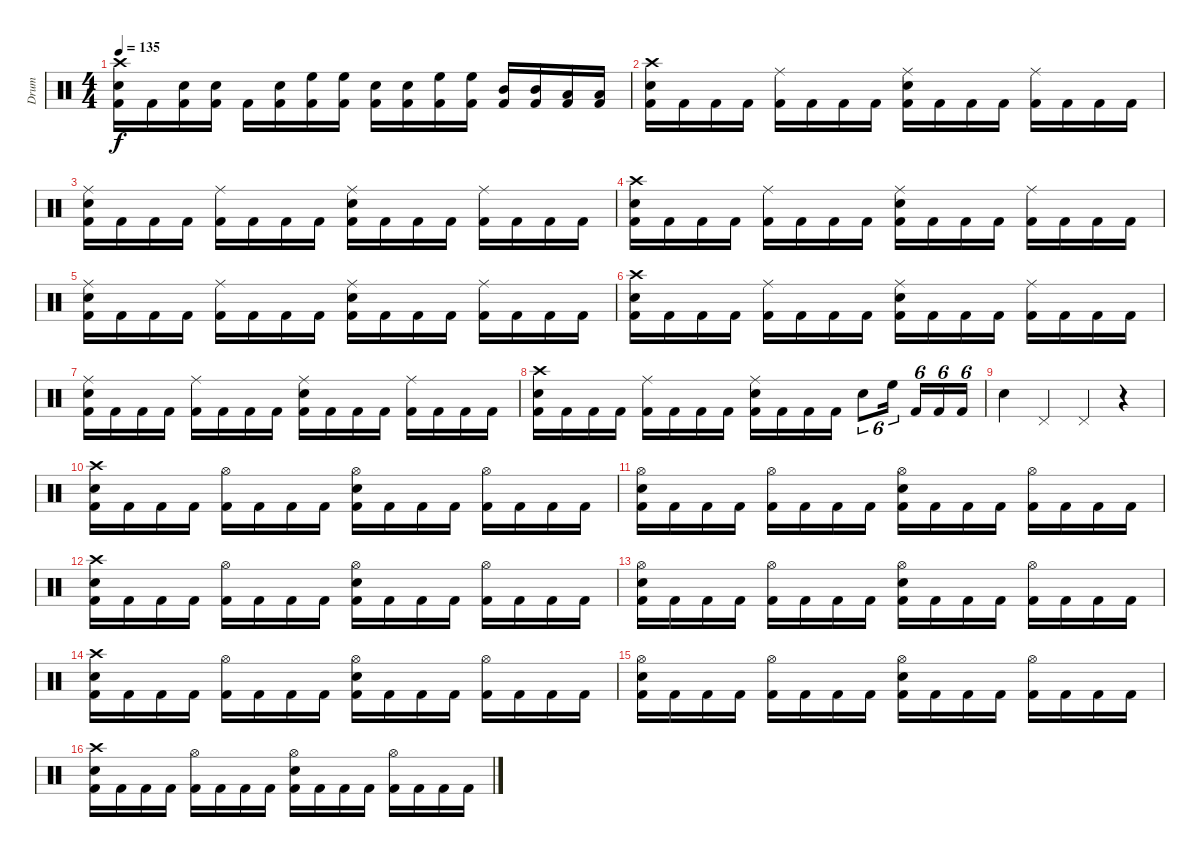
\track ("Drum" "Drum") {instrument percussion}
\staff {score}
\articulation defaults
\ts (4 4)
\tempo 135
\clef neutral
\ks c
("Crash high (hit)" "Snare (hit) 2" "Kick (hit) 2").16{dy f} "Kick (hit) 2".16 ("Snare (hit) 2" "Kick (hit) 2").16 ("Snare (hit) 2" "Kick (hit) 2").16 "Kick (hit) 2".16 ("Snare (hit) 2" "Kick (hit) 2").16 ("High Floor Tom (hit)" "Kick (hit) 2").16 ("High Floor Tom (hit)" "Kick (hit) 2").16 ("Snare (hit) 2" "Kick (hit) 2").16 ("Snare (hit) 2" "Kick (hit) 2").16 ("High Floor Tom (hit)" "Kick (hit) 2").16 ("High Floor Tom (hit)" "Kick (hit) 2").16 ("Mid Tom (hit)" "Kick (hit) 2").16 ("Mid Tom (hit)" "Kick (hit) 2").16 ("Low Tom (hit)" "Kick (hit) 2").16 ("Low Tom (hit)" "Kick (hit) 2").16 |
("Crash high (hit)" "Snare (hit) 2" "Kick (hit) 2").16 "Kick (hit) 2".16 "Kick (hit) 2".16 "Kick (hit) 2".16 ("Ride (middle)" "Kick (hit) 2").16 "Kick (hit) 2".16 "Kick (hit) 2".16 "Kick (hit) 2".16 ("Ride (middle)" "Snare (hit) 2" "Kick (hit) 2").16 "Kick (hit) 2".16 "Kick (hit) 2".16 "Kick (hit) 2".16 ("Ride (middle)" "Kick (hit) 2").16 "Kick (hit) 2".16 "Kick (hit) 2".16 "Kick (hit) 2".16 |
("Ride (middle)" "Snare (hit) 2" "Kick (hit) 2").16 "Kick (hit) 2".16 "Kick (hit) 2".16 "Kick (hit) 2".16 ("Ride (middle)" "Kick (hit) 2").16 "Kick (hit) 2".16 "Kick (hit) 2".16 "Kick (hit) 2".16 ("Ride (middle)" "Snare (hit) 2" "Kick (hit) 2").16 "Kick (hit) 2".16 "Kick (hit) 2".16 "Kick (hit) 2".16 ("Ride (middle)" "Kick (hit) 2").16 "Kick (hit) 2".16 "Kick (hit) 2".16 "Kick (hit) 2".16 |
("Crash high (hit)" "Snare (hit) 2" "Kick (hit) 2").16 "Kick (hit) 2".16 "Kick (hit) 2".16 "Kick (hit) 2".16 ("Ride (middle)" "Kick (hit) 2").16 "Kick (hit) 2".16 "Kick (hit) 2".16 "Kick (hit) 2".16 ("Ride (middle)" "Snare (hit) 2" "Kick (hit) 2").16 "Kick (hit) 2".16 "Kick (hit) 2".16 "Kick (hit) 2".16 ("Ride (middle)" "Kick (hit) 2").16 "Kick (hit) 2".16 "Kick (hit) 2".16 "Kick (hit) 2".16 |
("Ride (middle)" "Snare (hit) 2" "Kick (hit) 2").16 "Kick (hit) 2".16 "Kick (hit) 2".16 "Kick (hit) 2".16 ("Ride (middle)" "Kick (hit) 2").16 "Kick (hit) 2".16 "Kick (hit) 2".16 "Kick (hit) 2".16 ("Ride (middle)" "Snare (hit) 2" "Kick (hit) 2").16 "Kick (hit) 2".16 "Kick (hit) 2".16 "Kick (hit) 2".16 ("Ride (middle)" "Kick (hit) 2").16 "Kick (hit) 2".16 "Kick (hit) 2".16 "Kick (hit) 2".16 |
("Crash high (hit)" "Snare (hit) 2" "Kick (hit) 2").16 "Kick (hit) 2".16 "Kick (hit) 2".16 "Kick (hit) 2".16 ("Ride (middle)" "Kick (hit) 2").16 "Kick (hit) 2".16 "Kick (hit) 2".16 "Kick (hit) 2".16 ("Ride (middle)" "Snare (hit) 2" "Kick (hit) 2").16 "Kick (hit) 2".16 "Kick (hit) 2".16 "Kick (hit) 2".16 ("Ride (middle)" "Kick (hit) 2").16 "Kick (hit) 2".16 "Kick (hit) 2".16 "Kick (hit) 2".16 |
("Ride (middle)" "Snare (hit) 2" "Kick (hit) 2").16 "Kick (hit) 2".16 "Kick (hit) 2".16 "Kick (hit) 2".16 ("Ride (middle)" "Kick (hit) 2").16 "Kick (hit) 2".16 "Kick (hit) 2".16 "Kick (hit) 2".16 ("Ride (middle)" "Snare (hit) 2" "Kick (hit) 2").16 "Kick (hit) 2".16 "Kick (hit) 2".16 "Kick (hit) 2".16 ("Ride (middle)" "Kick (hit) 2").16 "Kick (hit) 2".16 "Kick (hit) 2".16 "Kick (hit) 2".16 |
("Crash high (hit)" "Snare (hit) 2" "Kick (hit) 2").16 "Kick (hit) 2".16 "Kick (hit) 2".16 "Kick (hit) 2".16 ("Ride (middle)" "Kick (hit) 2").16 "Kick (hit) 2".16 "Kick (hit) 2".16 "Kick (hit) 2".16 ("Ride (middle)" "Snare (hit) 2" "Kick (hit) 2").16 "Kick (hit) 2".16 "Kick (hit) 2".16 "Kick (hit) 2".16 "Snare (hit) 2".8{tu (6 4)} "High Floor Tom (hit)".16{tu (6 4)} "Kick (hit) 2".16{tu (6 4)} "Kick (hit) 2".16{tu (6 4)} "Kick (hit) 2".16{tu (6 4)} |
"Snare (hit) 2".4 "Pedal Hi-Hat (hit)".4 "Pedal Hi-Hat (hit)".4 r.4 |
("Crash high (hit)" "Snare (hit) 2" "Kick (hit) 2").16 "Kick (hit) 2".16 "Kick (hit) 2".16 "Kick (hit) 2".16 ("Hi-Hat (open)" "Kick (hit) 2").16 "Kick (hit) 2".16 "Kick (hit) 2".16 "Kick (hit) 2".16 ("Hi-Hat (open)" "Snare (hit) 2" "Kick (hit) 2").16 "Kick (hit) 2".16 "Kick (hit) 2".16 "Kick (hit) 2".16 ("Hi-Hat (open)" "Kick (hit) 2").16 "Kick (hit) 2".16 "Kick (hit) 2".16 "Kick (hit) 2".16 |
("Hi-Hat (open)" "Snare (hit) 2" "Kick (hit) 2").16 "Kick (hit) 2".16 "Kick (hit) 2".16 "Kick (hit) 2".16 ("Hi-Hat (open)" "Kick (hit) 2").16 "Kick (hit) 2".16 "Kick (hit) 2".16 "Kick (hit) 2".16 ("Hi-Hat (open)" "Snare (hit) 2" "Kick (hit) 2").16 "Kick (hit) 2".16 "Kick (hit) 2".16 "Kick (hit) 2".16 ("Hi-Hat (open)" "Kick (hit) 2").16 "Kick (hit) 2".16 "Kick (hit) 2".16 "Kick (hit) 2".16 |
("Crash high (hit)" "Snare (hit) 2" "Kick (hit) 2").16 "Kick (hit) 2".16 "Kick (hit) 2".16 "Kick (hit) 2".16 ("Hi-Hat (open)" "Kick (hit) 2").16 "Kick (hit) 2".16 "Kick (hit) 2".16 "Kick (hit) 2".16 ("Hi-Hat (open)" "Snare (hit) 2" "Kick (hit) 2").16 "Kick (hit) 2".16 "Kick (hit) 2".16 "Kick (hit) 2".16 ("Hi-Hat (open)" "Kick (hit) 2").16 "Kick (hit) 2".16 "Kick (hit) 2".16 "Kick (hit) 2".16 |
("Hi-Hat (open)" "Snare (hit) 2" "Kick (hit) 2").16 "Kick (hit) 2".16 "Kick (hit) 2".16 "Kick (hit) 2".16 ("Hi-Hat (open)" "Kick (hit) 2").16 "Kick (hit) 2".16 "Kick (hit) 2".16 "Kick (hit) 2".16 ("Hi-Hat (open)" "Snare (hit) 2" "Kick (hit) 2").16 "Kick (hit) 2".16 "Kick (hit) 2".16 "Kick (hit) 2".16 ("Hi-Hat (open)" "Kick (hit) 2").16 "Kick (hit) 2".16 "Kick (hit) 2".16 "Kick (hit) 2".16 |
("Crash high (hit)" "Snare (hit) 2" "Kick (hit) 2").16 "Kick (hit) 2".16 "Kick (hit) 2".16 "Kick (hit) 2".16 ("Hi-Hat (open)" "Kick (hit) 2").16 "Kick (hit) 2".16 "Kick (hit) 2".16 "Kick (hit) 2".16 ("Hi-Hat (open)" "Snare (hit) 2" "Kick (hit) 2").16 "Kick (hit) 2".16 "Kick (hit) 2".16 "Kick (hit) 2".16 ("Hi-Hat (open)" "Kick (hit) 2").16 "Kick (hit) 2".16 "Kick (hit) 2".16 "Kick (hit) 2".16 |
("Hi-Hat (open)" "Snare (hit) 2" "Kick (hit) 2").16 "Kick (hit) 2".16 "Kick (hit) 2".16 "Kick (hit) 2".16 ("Hi-Hat (open)" "Kick (hit) 2").16 "Kick (hit) 2".16 "Kick (hit) 2".16 "Kick (hit) 2".16 ("Hi-Hat (open)" "Snare (hit) 2" "Kick (hit) 2").16 "Kick (hit) 2".16 "Kick (hit) 2".16 "Kick (hit) 2".16 ("Hi-Hat (open)" "Kick (hit) 2").16 "Kick (hit) 2".16 "Kick (hit) 2".16 "Kick (hit) 2".16 |
("Crash high (hit)" "Snare (hit) 2" "Kick (hit) 2").16 "Kick (hit) 2".16 "Kick (hit) 2".16 "Kick (hit) 2".16 ("Hi-Hat (open)" "Kick (hit) 2").16 "Kick (hit) 2".16 "Kick (hit) 2".16 "Kick (hit) 2".16 ("Hi-Hat (open)" "Snare (hit) 2" "Kick (hit) 2").16 "Kick (hit) 2".16 "Kick (hit) 2".16 "Kick (hit) 2".16 ("Hi-Hat (open)" "Kick (hit) 2").16 "Kick (hit) 2".16 "Kick (hit) 2".16 "Kick (hit) 2".16
